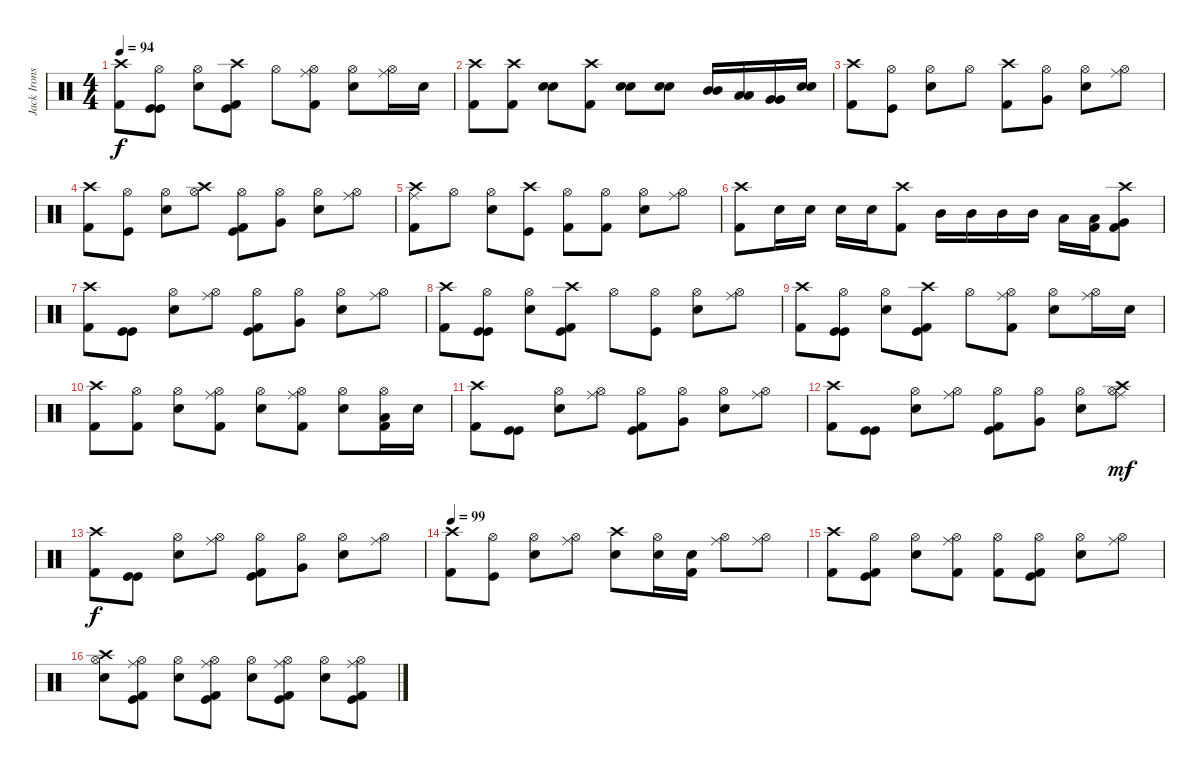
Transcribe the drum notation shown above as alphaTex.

\track ("Jack Irons" "Jack Irons") {instrument percussion}
\staff {score}
\articulation defaults
\ts (4 4)
\tempo 94
\clef neutral
\ks c
("Crash high (hit)" "Kick (hit) 2").8{dy f} ("Hi-Hat (open)" "Kick (hit)" "Kick (hit)").8 ("Hi-Hat (open)" "Electric Snare (hit)").8 ("Crash high (hit)" "Kick (hit)" "Kick (hit) 2").8 "Hi-Hat (open)".8 ("Hi-Hat (open)" "Ride (middle)" "Kick (hit) 2").8 ("Hi-Hat (open)" "Electric Snare (hit)").8 ("Hi-Hat (open)" "Ride (middle)").16 "Electric Snare (hit)".16 |
("Crash high (hit)" "Kick (hit) 2").8 ("Crash high (hit)" "Kick (hit) 2").8 ("Electric Snare (hit)" "Electric Snare (hit)").8 ("Crash high (hit)" "Kick (hit) 2").8 ("Electric Snare (hit)" "Electric Snare (hit)").8 ("Electric Snare (hit)" "Electric Snare (hit)").8 ("Mid Tom (hit)" "Mid Tom (hit)").16 ("Low Tom (hit)" "Low Tom (hit)").16 ("Very Low Tom (hit)" "Very Low Tom (hit)").16 ("Electric Snare (hit)" "Electric Snare (hit)").16 |
("Crash high (hit)" "Kick (hit) 2").8 ("Hi-Hat (open)" "Kick (hit)").8 ("Hi-Hat (open)" "Electric Snare (hit)").8 "Hi-Hat (open)".8 ("Crash high (hit)" "Kick (hit) 2").8 ("Hi-Hat (open)" "Very Low Tom (hit)").8 ("Hi-Hat (open)" "Electric Snare (hit)").8 ("Hi-Hat (open)" "Ride (middle)").8 |
("Crash high (hit)" "Kick (hit) 2").8 ("Hi-Hat (open)" "Kick (hit)").8 ("Hi-Hat (open)" "Electric Snare (hit)").8 ("Crash high (hit)" "Hi-Hat (open)").8 ("Hi-Hat (open)" "Kick (hit)" "Kick (hit) 2").8 ("Hi-Hat (open)" "Very Low Tom (hit)").8 ("Hi-Hat (open)" "Electric Snare (hit)").8 ("Hi-Hat (open)" "Ride (middle)").8 |
("Crash high (hit)" "Ride (middle)" "Kick (hit) 2").8 "Hi-Hat (open)".8 ("Hi-Hat (open)" "Electric Snare (hit)").8 ("Crash high (hit)" "Kick (hit)").8 ("Hi-Hat (open)" "Kick (hit) 2").8 ("Hi-Hat (open)" "Kick (hit) 2").8 ("Hi-Hat (open)" "Electric Snare (hit)").8 ("Hi-Hat (open)" "Ride (middle)").8 |
("Crash high (hit)" "Kick (hit) 2").8 "Electric Snare (hit)".16 "Electric Snare (hit)".16 "Electric Snare (hit)".16 "Electric Snare (hit)".16 ("Crash high (hit)" "Kick (hit) 2").8 "Mid Tom (hit)".16 "Mid Tom (hit)".16 "Mid Tom (hit)".16 "Mid Tom (hit)".16 "Low Tom (hit)".16 ("Low Tom (hit)" "Kick (hit) 2").16 ("Crash high (hit)" "Very Low Tom (hit)" "Kick (hit) 2").8 |
("Crash high (hit)" "Kick (hit) 2").8 ("Kick (hit)" "Kick (hit)").8 ("Hi-Hat (open)" "Electric Snare (hit)").8 ("Hi-Hat (open)" "Ride (middle)").8 ("Hi-Hat (open)" "Kick (hit)" "Kick (hit) 2").8 ("Hi-Hat (open)" "Very Low Tom (hit)").8 ("Hi-Hat (open)" "Electric Snare (hit)").8 ("Hi-Hat (open)" "Ride (middle)").8 |
("Crash high (hit)" "Kick (hit) 2").8 ("Hi-Hat (open)" "Kick (hit)" "Kick (hit)").8 ("Hi-Hat (open)" "Electric Snare (hit)").8 ("Crash high (hit)" "Kick (hit)" "Kick (hit) 2").8 "Hi-Hat (open)".8 ("Hi-Hat (open)" "Kick (hit)").8 ("Hi-Hat (open)" "Electric Snare (hit)").8 ("Hi-Hat (open)" "Ride (middle)").8 |
("Crash high (hit)" "Kick (hit) 2").8 ("Hi-Hat (open)" "Kick (hit)" "Kick (hit)").8 ("Hi-Hat (open)" "Electric Snare (hit)").8 ("Crash high (hit)" "Kick (hit)" "Kick (hit) 2").8 "Hi-Hat (open)".8 ("Hi-Hat (open)" "Ride (middle)" "Kick (hit) 2").8 ("Hi-Hat (open)" "Electric Snare (hit)").8 ("Hi-Hat (open)" "Ride (middle)").16 "Electric Snare (hit)".16 |
("Crash high (hit)" "Kick (hit) 2").8 ("Hi-Hat (open)" "Kick (hit) 2").8 ("Hi-Hat (open)" "Electric Snare (hit)").8 ("Hi-Hat (open)" "Ride (middle)" "Kick (hit) 2").8 ("Hi-Hat (open)" "Electric Snare (hit)").8 ("Hi-Hat (open)" "Ride (middle)" "Kick (hit) 2").8 ("Hi-Hat (open)" "Electric Snare (hit)").8 ("Hi-Hat (open)" "Low Tom (hit)" "Kick (hit) 2").16 "Electric Snare (hit)".16 |
("Crash high (hit)" "Kick (hit) 2").8 ("Kick (hit)" "Kick (hit)").8 ("Hi-Hat (open)" "Electric Snare (hit)").8 ("Hi-Hat (open)" "Ride (middle)").8 ("Hi-Hat (open)" "Kick (hit)" "Kick (hit) 2").8 ("Hi-Hat (open)" "Very Low Tom (hit)").8 ("Hi-Hat (open)" "Electric Snare (hit)").8 ("Hi-Hat (open)" "Ride (middle)").8 |
("Crash high (hit)" "Kick (hit) 2").8 ("Kick (hit)" "Kick (hit)").8 ("Hi-Hat (open)" "Electric Snare (hit)").8 ("Hi-Hat (open)" "Ride (middle)").8 ("Hi-Hat (open)" "Kick (hit)" "Kick (hit) 2").8 ("Hi-Hat (open)" "Very Low Tom (hit)").8 ("Hi-Hat (open)" "Electric Snare (hit)").8 ("Crash high (hit)" "Hi-Hat (open)" "Ride (middle)").8{dy mf} |
("Crash high (hit)" "Kick (hit) 2").8{dy f} ("Kick (hit)" "Kick (hit)").8 ("Hi-Hat (open)" "Electric Snare (hit)").8 ("Hi-Hat (open)" "Ride (middle)").8 ("Hi-Hat (open)" "Kick (hit)" "Kick (hit) 2").8 ("Hi-Hat (open)" "Very Low Tom (hit)").8 ("Hi-Hat (open)" "Electric Snare (hit)").8 ("Hi-Hat (open)" "Ride (middle)").8 |
\tempo 99
("Crash high (hit)" "Kick (hit) 2").8 ("Hi-Hat (open)" "Kick (hit)").8 ("Hi-Hat (open)" "Electric Snare (hit)").8 ("Hi-Hat (open)" "Ride (middle)").8 ("Crash high (hit)" "Electric Snare (hit)").8 ("Hi-Hat (open)" "Electric Snare (hit)").16 ("Electric Snare (hit)" "Kick (hit) 2").16 ("Hi-Hat (open)" "Ride (middle)").8 ("Hi-Hat (open)" "Ride (middle)").8 |
("Crash high (hit)" "Kick (hit) 2").8 ("Hi-Hat (open)" "Kick (hit)" "Kick (hit) 2").8 ("Hi-Hat (open)" "Electric Snare (hit)").8 ("Hi-Hat (open)" "Ride (middle)" "Kick (hit) 2").8 ("Hi-Hat (open)" "Kick (hit) 2").8 ("Hi-Hat (open)" "Kick (hit)" "Kick (hit) 2").8 ("Hi-Hat (open)" "Electric Snare (hit)").8 ("Hi-Hat (open)" "Ride (middle)").8 |
("Crash high (hit)" "Hi-Hat (open)" "Electric Snare (hit)").8 ("Hi-Hat (open)" "Ride (middle)" "Kick (hit)" "Kick (hit) 2").8 ("Hi-Hat (open)" "Electric Snare (hit)").8 ("Hi-Hat (open)" "Ride (middle)" "Kick (hit)" "Kick (hit) 2").8 ("Hi-Hat (open)" "Electric Snare (hit)").8 ("Hi-Hat (open)" "Ride (middle)" "Kick (hit)" "Kick (hit) 2").8 ("Hi-Hat (open)" "Electric Snare (hit)").8 ("Hi-Hat (open)" "Ride (middle)" "Kick (hit)" "Kick (hit) 2").8
